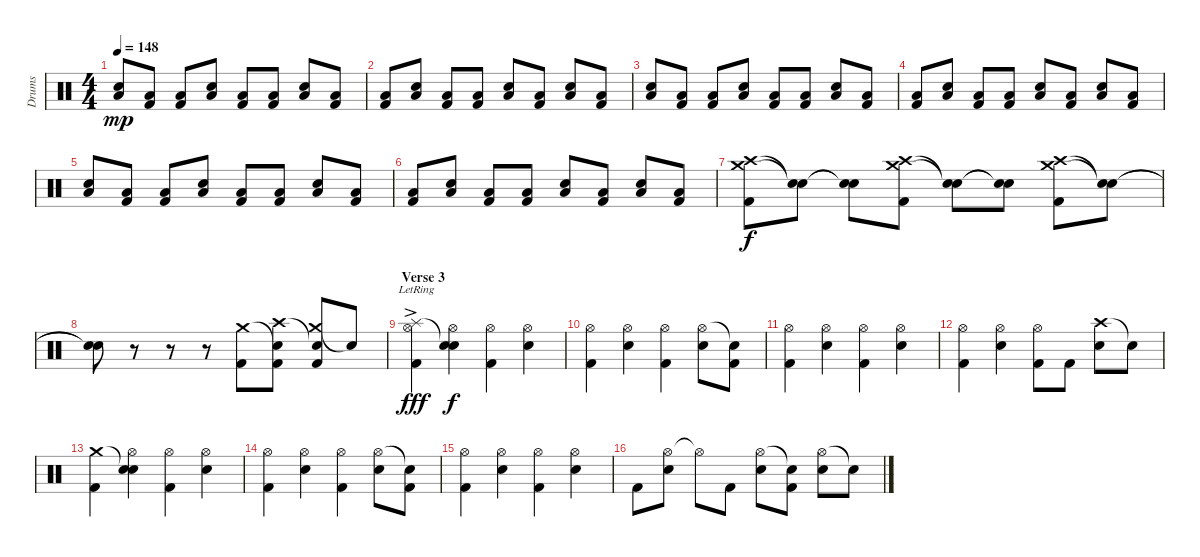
\track ("Drums" "Drums") {instrument percussion}
\staff {score}
\articulation defaults
\ts (4 4)
\tempo 148
\clef neutral
\ks c
("Low Floor Tom (hit)"{pm} "Electric Snare (hit)").8{dy mp} ("Low Floor Tom (hit)"{pm} "Kick (hit) 2").8 ("Low Floor Tom (hit)"{pm} "Kick (hit) 2").8 ("Low Floor Tom (hit)"{pm} "Electric Snare (hit)").8 ("Low Floor Tom (hit)"{pm} "Kick (hit) 2").8 ("Low Floor Tom (hit)"{pm} "Kick (hit) 2").8 ("Low Floor Tom (hit)"{pm} "Electric Snare (hit)").8 ("Low Floor Tom (hit)"{pm} "Kick (hit) 2").8 |
("Low Floor Tom (hit)"{pm} "Kick (hit) 2").8 ("Low Floor Tom (hit)"{pm} "Electric Snare (hit)").8 ("Low Floor Tom (hit)"{pm} "Kick (hit) 2").8 ("Low Floor Tom (hit)"{pm} "Kick (hit) 2").8 ("Low Floor Tom (hit)"{pm} "Electric Snare (hit)").8 ("Low Floor Tom (hit)"{pm} "Kick (hit) 2").8 ("Low Floor Tom (hit)"{pm} "Electric Snare (hit)").8 ("Low Floor Tom (hit)"{pm} "Kick (hit) 2").8 |
("Low Floor Tom (hit)"{pm} "Electric Snare (hit)").8 ("Low Floor Tom (hit)"{pm} "Kick (hit) 2").8 ("Low Floor Tom (hit)"{pm} "Kick (hit) 2").8 ("Low Floor Tom (hit)"{pm} "Electric Snare (hit)").8 ("Low Floor Tom (hit)"{pm} "Kick (hit) 2").8 ("Low Floor Tom (hit)"{pm} "Kick (hit) 2").8 ("Low Floor Tom (hit)"{pm} "Electric Snare (hit)").8 ("Low Floor Tom (hit)"{pm} "Kick (hit) 2").8 |
("Low Floor Tom (hit)"{pm} "Kick (hit) 2").8 ("Low Floor Tom (hit)"{pm} "Electric Snare (hit)").8 ("Low Floor Tom (hit)"{pm} "Kick (hit) 2").8 ("Low Floor Tom (hit)"{pm} "Kick (hit) 2").8 ("Low Floor Tom (hit)"{pm} "Electric Snare (hit)").8 ("Low Floor Tom (hit)"{pm} "Kick (hit) 2").8 ("Low Floor Tom (hit)"{pm} "Electric Snare (hit)").8 ("Low Floor Tom (hit)"{pm} "Kick (hit) 2").8 |
("Low Floor Tom (hit)"{pm} "Electric Snare (hit)").8 ("Low Floor Tom (hit)"{pm} "Kick (hit) 2").8 ("Low Floor Tom (hit)"{pm} "Kick (hit) 2").8 ("Low Floor Tom (hit)"{pm} "Electric Snare (hit)").8 ("Low Floor Tom (hit)"{pm} "Kick (hit) 2").8 ("Low Floor Tom (hit)"{pm} "Kick (hit) 2").8 ("Low Floor Tom (hit)"{pm} "Electric Snare (hit)").8 ("Low Floor Tom (hit)"{pm} "Kick (hit) 2").8 |
("Low Floor Tom (hit)"{pm} "Kick (hit) 2").8 ("Low Floor Tom (hit)"{pm} "Electric Snare (hit)").8 ("Low Floor Tom (hit)"{pm} "Kick (hit) 2").8 ("Low Floor Tom (hit)"{pm} "Kick (hit) 2").8 ("Low Floor Tom (hit)"{pm} "Electric Snare (hit)").8 ("Low Floor Tom (hit)"{pm} "Kick (hit) 2").8 ("Low Floor Tom (hit)"{pm} "Electric Snare (hit)").8 ("Low Floor Tom (hit)"{pm} "Kick (hit) 2").8 |
("Crash medium (hit)" "Crash high (hit)" "Kick (hit) 2").8{dy f} ("Snare (hit)"{t} "Snare (hit)"{t}).8 ("Snare (hit)"{t} "Snare (hit)"{t}).8 ("Crash medium (hit)" "Crash high (hit)" "Kick (hit) 2").8 ("Snare (hit)"{t} "Snare (hit)"{t}).8 ("Snare (hit)"{t} "Snare (hit)"{t}).8 ("Crash medium (hit)" "Crash high (hit)" "Kick (hit) 2").8 ("Snare (hit)"{t} "Snare (hit)"{t}).8 |
("Snare (hit)"{t} "Snare (hit)"{t}).8 r.8 r.8 r.8 ("Crash medium (hit)" "Kick (hit) 2").8 ("Snare (hit)"{t} "Crash high (hit)" "Kick (hit) 2").8 ("Crash medium (hit)" "Snare (hit)"{t} "Kick (hit) 2").8 "Snare (hit)"{t}.8 |
\section ("" "Verse 3")
("Splash (hit)"{ac} "Hi-Hat (open)"{lr} "Kick (hit) 2").4{dy fff} ("Snare (hit)"{t} "Hi-Hat (open)" "Electric Snare (hit)").4{dy f} ("Hi-Hat (open)" "Kick (hit) 2").4 ("Hi-Hat (open)" "Electric Snare (hit)").4 |
("Hi-Hat (open)" "Kick (hit) 2").4 ("Hi-Hat (open)" "Electric Snare (hit)").4 ("Hi-Hat (open)" "Kick (hit) 2").4 ("Hi-Hat (open)" "Electric Snare (hit)").8 ("Snare (hit)"{t} "Kick (hit) 2").8 |
("Hi-Hat (open)" "Kick (hit) 2").4 ("Hi-Hat (open)" "Electric Snare (hit)").4 ("Hi-Hat (open)" "Kick (hit) 2").4 ("Hi-Hat (open)" "Electric Snare (hit)").4 |
("Hi-Hat (open)" "Kick (hit) 2").4 ("Hi-Hat (open)" "Electric Snare (hit)").4 ("Hi-Hat (open)" "Kick (hit) 2").8 "Kick (hit) 2".8 ("Crash high (hit)" "Electric Snare (hit)").8 "Snare (hit)"{t}.8 |
("Crash medium (hit)" "Kick (hit) 2").4 ("Snare (hit)"{t} "Hi-Hat (open)" "Electric Snare (hit)").4 ("Hi-Hat (open)" "Kick (hit) 2").4 ("Hi-Hat (open)" "Electric Snare (hit)").4 |
("Hi-Hat (open)" "Kick (hit) 2").4 ("Hi-Hat (open)" "Electric Snare (hit)").4 ("Hi-Hat (open)" "Kick (hit) 2").4 ("Hi-Hat (open)" "Electric Snare (hit)").8 ("Snare (hit)"{t} "Kick (hit) 2").8 |
("Hi-Hat (open)" "Kick (hit) 2").4 ("Hi-Hat (open)" "Electric Snare (hit)").4 ("Hi-Hat (open)" "Kick (hit) 2").4 ("Hi-Hat (open)" "Electric Snare (hit)").4 |
"Kick (hit) 2".8 ("Hi-Hat (open)" "Electric Snare (hit)").8 "Hi-Hat (open)"{t}.8 "Kick (hit) 2".8 ("Hi-Hat (open)" "Electric Snare (hit)").8 ("Snare (hit)"{t} "Kick (hit) 2").8 ("Hi-Hat (open)" "Electric Snare (hit)").8 "Snare (hit)"{t}.8
